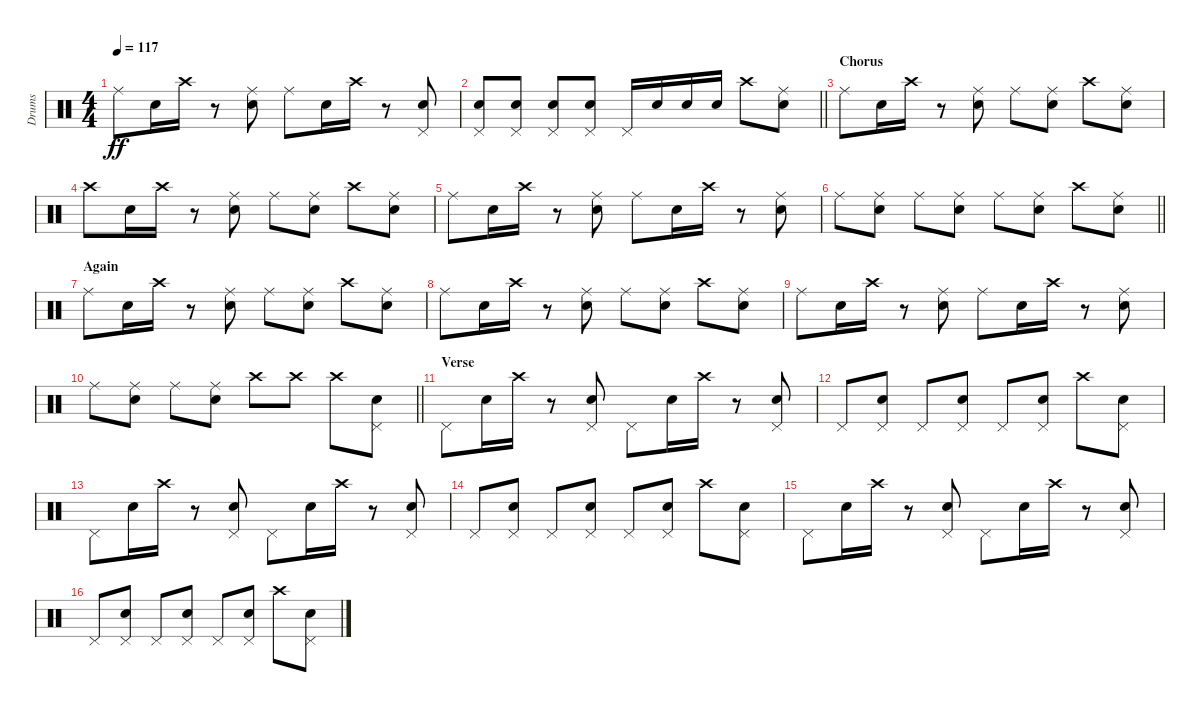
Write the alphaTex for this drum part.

\track ("Drums" "Drums") {instrument percussion}
\staff {score}
\articulation defaults
\ts (4 4)
\tempo 117
\clef neutral
\ks c "Ride (middle)".8{dy ff} "Snare (hit) 2".16 "Crash high (hit)".16
r.8 ("Snare (hit) 2" "Ride (middle)").8 "Ride (middle)".8 "Snare (hit) 2".16 "Crash high (hit)".16 r.8 ("Snare (hit) 2" "Pedal Hi-Hat (hit)").8 |
\barLineRight lightlight
("Snare (hit) 2" "Pedal Hi-Hat (hit)").8 ("Snare (hit) 2" "Pedal Hi-Hat (hit)").8 ("Snare (hit) 2" "Pedal Hi-Hat (hit)").8 ("Snare (hit) 2" "Pedal Hi-Hat (hit)").8 "Pedal Hi-Hat (hit)".16 "Snare (hit) 2".16 "Snare (hit) 2".16 "Snare (hit) 2".16 "Crash high (hit)".8 ("Snare (hit) 2" "Ride (middle)").8 |
\section ("" "Chorus")
"Ride (middle)".8 "Snare (hit) 2".16 "Crash high (hit)".16 r.8 ("Snare (hit) 2" "Ride (middle)").8 "Ride (middle)".8 ("Snare (hit) 2" "Ride (middle)").8 "Crash high (hit)".8 ("Snare (hit) 2" "Ride (middle)").8 |
"Crash high (hit)".8 "Snare (hit) 2".16 "Crash high (hit)".16 r.8 ("Snare (hit) 2" "Ride (middle)").8 "Ride (middle)".8 ("Snare (hit) 2" "Ride (middle)").8 "Crash high (hit)".8 ("Snare (hit) 2" "Ride (middle)").8 |
"Ride (middle)".8 "Snare (hit) 2".16 "Crash high (hit)".16 r.8 ("Snare (hit) 2" "Ride (middle)").8 "Ride (middle)".8 "Snare (hit) 2".16 "Crash high (hit)".16 r.8 ("Snare (hit) 2" "Ride (middle)").8 |
\barLineRight lightlight "Ride (middle)".8
("Snare (hit) 2" "Ride (middle)").8 "Ride (middle)".8 ("Snare (hit) 2" "Ride (middle)").8 "Ride (middle)".8 ("Snare (hit) 2" "Ride (middle)").8 "Crash high (hit)".8 ("Snare (hit) 2" "Ride (middle)").8 |
\section ("" "Again")
"Ride (middle)".8 "Snare (hit) 2".16 "Crash high (hit)".16 r.8 ("Snare (hit) 2" "Ride (middle)").8 "Ride (middle)".8 ("Snare (hit) 2" "Ride (middle)").8 "Crash high (hit)".8 ("Snare (hit) 2" "Ride (middle)").8 |
"Ride (middle)".8 "Snare (hit) 2".16 "Crash high (hit)".16 r.8 ("Snare (hit) 2" "Ride (middle)").8 "Ride (middle)".8 ("Snare (hit) 2" "Ride (middle)").8 "Crash high (hit)".8 ("Snare (hit) 2" "Ride (middle)").8 |
"Ride (middle)".8 "Snare (hit) 2".16 "Crash high (hit)".16 r.8 ("Snare (hit) 2" "Ride (middle)").8 "Ride (middle)".8 "Snare (hit) 2".16 "Crash high (hit)".16 r.8 ("Snare (hit) 2" "Ride (middle)").8 |
\barLineRight lightlight "Ride (middle)".8
("Snare (hit) 2" "Ride (middle)").8 "Ride (middle)".8 ("Snare (hit) 2" "Ride (middle)").8 "Crash high (hit)".8 "Crash high (hit)".8 "Crash high (hit)".8 ("Snare (hit) 2" "Pedal Hi-Hat (hit)").8 |
\section ("" "Verse")
"Pedal Hi-Hat (hit)".8 "Snare (hit) 2".16 "Crash high (hit)".16 r.8 ("Snare (hit) 2" "Pedal Hi-Hat (hit)").8 "Pedal Hi-Hat (hit)".8 "Snare (hit) 2".16 "Crash high (hit)".16 r.8 ("Snare (hit) 2" "Pedal Hi-Hat (hit)").8 |
"Pedal Hi-Hat (hit)".8 ("Snare (hit) 2" "Pedal Hi-Hat (hit)").8 "Pedal Hi-Hat (hit)".8 ("Snare (hit) 2" "Pedal Hi-Hat (hit)").8 "Pedal Hi-Hat (hit)".8 ("Snare (hit) 2" "Pedal Hi-Hat (hit)").8 "Crash high (hit)".8 ("Snare (hit) 2" "Pedal Hi-Hat (hit)").8 |
"Pedal Hi-Hat (hit)".8 "Snare (hit) 2".16 "Crash high (hit)".16 r.8 ("Snare (hit) 2" "Pedal Hi-Hat (hit)").8 "Pedal Hi-Hat (hit)".8 "Snare (hit) 2".16 "Crash high (hit)".16 r.8 ("Snare (hit) 2" "Pedal Hi-Hat (hit)").8 |
"Pedal Hi-Hat (hit)".8 ("Snare (hit) 2" "Pedal Hi-Hat (hit)").8 "Pedal Hi-Hat (hit)".8 ("Snare (hit) 2" "Pedal Hi-Hat (hit)").8 "Pedal Hi-Hat (hit)".8 ("Snare (hit) 2" "Pedal Hi-Hat (hit)").8 "Crash high (hit)".8 ("Snare (hit) 2" "Pedal Hi-Hat (hit)").8 |
"Pedal Hi-Hat (hit)".8 "Snare (hit) 2".16 "Crash high (hit)".16 r.8 ("Snare (hit) 2" "Pedal Hi-Hat (hit)").8 "Pedal Hi-Hat (hit)".8 "Snare (hit) 2".16 "Crash high (hit)".16 r.8 ("Snare (hit) 2" "Pedal Hi-Hat (hit)").8 |
"Pedal Hi-Hat (hit)".8 ("Snare (hit) 2" "Pedal Hi-Hat (hit)").8 "Pedal Hi-Hat (hit)".8 ("Snare (hit) 2" "Pedal Hi-Hat (hit)").8 "Pedal Hi-Hat (hit)".8 ("Snare (hit) 2" "Pedal Hi-Hat (hit)").8 "Crash high (hit)".8 ("Snare (hit) 2" "Pedal Hi-Hat (hit)").8
